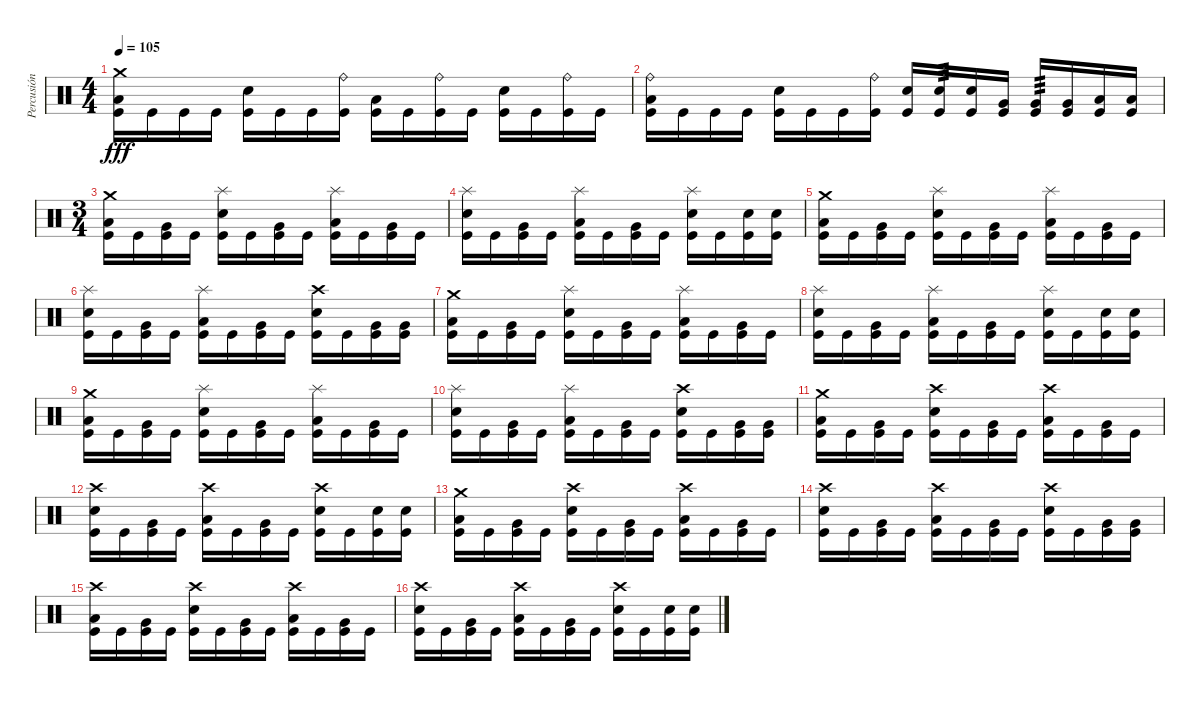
\track ("Percusión" "Percusión") {instrument percussion}
\staff {score}
\articulation defaults
\ts (4 4)
\tempo 105
\clef neutral
\ks c
("Crash medium (hit)" "Low Floor Tom (hit)" "Kick (hit)").16{dy fff} "Kick (hit)".16 "Kick (hit)".16 "Kick (hit)".16 ("Snare (hit) 2" "Kick (hit)").16 "Kick (hit)".16 "Kick (hit)".16 ("Ride (bell)" "Kick (hit)").16 ("Low Floor Tom (hit)" "Kick (hit)").16 "Kick (hit)".16 ("Ride (bell)" "Kick (hit)").16 "Kick (hit)".16 ("Snare (hit) 2" "Kick (hit)").16 "Kick (hit)".16 ("Ride (bell)" "Kick (hit)").16 "Kick (hit)".16 |
("Ride (bell)" "Low Floor Tom (hit)" "Kick (hit)").16 "Kick (hit)".16 "Kick (hit)".16 "Kick (hit)".16 ("Snare (hit) 2" "Kick (hit)").16 "Kick (hit)".16 "Kick (hit)".16 ("Ride (bell)" "Kick (hit)").16 ("Snare (hit) 2" "Kick (hit)").16 ("Snare (hit) 2" "Kick (hit)").16{tp 3} ("Snare (hit) 2" "Kick (hit)").16 ("Very Low Tom (hit)" "Kick (hit)").16 ("Very Low Tom (hit)" "Kick (hit)").16{tp 3} ("Very Low Tom (hit)" "Kick (hit)").16 ("Low Floor Tom (hit)" "Kick (hit)").16 ("Low Floor Tom (hit)" "Kick (hit)").16 |
\ts (3 4)
("Crash medium (hit)" "Low Floor Tom (hit)" "Kick (hit)").16 "Kick (hit)".16 ("Very Low Tom (hit)" "Kick (hit)").16 "Kick (hit)".16 ("Splash (hit)" "Snare (hit) 2" "Kick (hit)").16 "Kick (hit)".16 ("Very Low Tom (hit)" "Kick (hit)").16 "Kick (hit)".16 ("Splash (hit)" "Low Floor Tom (hit)" "Kick (hit)").16 "Kick (hit)".16 ("Very Low Tom (hit)" "Kick (hit)").16 "Kick (hit)".16 |
("Splash (hit)" "Snare (hit) 2" "Kick (hit)").16 "Kick (hit)".16 ("Very Low Tom (hit)" "Kick (hit)").16 "Kick (hit)".16 ("Splash (hit)" "Low Floor Tom (hit)" "Kick (hit)").16 "Kick (hit)".16 ("Very Low Tom (hit)" "Kick (hit)").16 "Kick (hit)".16 ("Splash (hit)" "Snare (hit) 2" "Kick (hit)").16 "Kick (hit)".16 ("Snare (hit) 2" "Kick (hit)").16 ("Snare (hit) 2" "Kick (hit)").16 |
("Crash medium (hit)" "Low Floor Tom (hit)" "Kick (hit)").16 "Kick (hit)".16 ("Very Low Tom (hit)" "Kick (hit)").16 "Kick (hit)".16 ("Splash (hit)" "Snare (hit) 2" "Kick (hit)").16 "Kick (hit)".16 ("Very Low Tom (hit)" "Kick (hit)").16 "Kick (hit)".16 ("Splash (hit)" "Low Floor Tom (hit)" "Kick (hit)").16 "Kick (hit)".16 ("Very Low Tom (hit)" "Kick (hit)").16 "Kick (hit)".16 |
("Splash (hit)" "Snare (hit) 2" "Kick (hit)").16 "Kick (hit)".16 ("Very Low Tom (hit)" "Kick (hit)").16 "Kick (hit)".16 ("Splash (hit)" "Low Floor Tom (hit)" "Kick (hit)").16 "Kick (hit)".16 ("Very Low Tom (hit)" "Kick (hit)").16 "Kick (hit)".16 ("Crash high (hit)" "Snare (hit) 2" "Kick (hit)").16 "Kick (hit)".16 ("Very Low Tom (hit)" "Kick (hit)").16 ("Very Low Tom (hit)" "Kick (hit)").16 |
("Crash medium (hit)" "Low Floor Tom (hit)" "Kick (hit)").16 "Kick (hit)".16 ("Very Low Tom (hit)" "Kick (hit)").16 "Kick (hit)".16 ("Splash (hit)" "Snare (hit) 2" "Kick (hit)").16 "Kick (hit)".16 ("Very Low Tom (hit)" "Kick (hit)").16 "Kick (hit)".16 ("Splash (hit)" "Low Floor Tom (hit)" "Kick (hit)").16 "Kick (hit)".16 ("Very Low Tom (hit)" "Kick (hit)").16 "Kick (hit)".16 |
("Splash (hit)" "Snare (hit) 2" "Kick (hit)").16 "Kick (hit)".16 ("Very Low Tom (hit)" "Kick (hit)").16 "Kick (hit)".16 ("Splash (hit)" "Low Floor Tom (hit)" "Kick (hit)").16 "Kick (hit)".16 ("Very Low Tom (hit)" "Kick (hit)").16 "Kick (hit)".16 ("Splash (hit)" "Snare (hit) 2" "Kick (hit)").16 "Kick (hit)".16 ("Snare (hit) 2" "Kick (hit)").16 ("Snare (hit) 2" "Kick (hit)").16 |
("Crash medium (hit)" "Low Floor Tom (hit)" "Kick (hit)").16 "Kick (hit)".16 ("Very Low Tom (hit)" "Kick (hit)").16 "Kick (hit)".16 ("Splash (hit)" "Snare (hit) 2" "Kick (hit)").16 "Kick (hit)".16 ("Very Low Tom (hit)" "Kick (hit)").16 "Kick (hit)".16 ("Splash (hit)" "Low Floor Tom (hit)" "Kick (hit)").16 "Kick (hit)".16 ("Very Low Tom (hit)" "Kick (hit)").16 "Kick (hit)".16 |
("Splash (hit)" "Snare (hit) 2" "Kick (hit)").16 "Kick (hit)".16 ("Very Low Tom (hit)" "Kick (hit)").16 "Kick (hit)".16 ("Splash (hit)" "Low Floor Tom (hit)" "Kick (hit)").16 "Kick (hit)".16 ("Very Low Tom (hit)" "Kick (hit)").16 "Kick (hit)".16 ("Crash high (hit)" "Snare (hit) 2" "Kick (hit)").16 "Kick (hit)".16 ("Very Low Tom (hit)" "Kick (hit)").16 ("Very Low Tom (hit)" "Kick (hit)").16 |
("Crash medium (hit)" "Low Floor Tom (hit)" "Kick (hit)").16 "Kick (hit)".16 ("Very Low Tom (hit)" "Kick (hit)").16 "Kick (hit)".16 ("Crash high (hit)" "Snare (hit) 2" "Kick (hit)").16 "Kick (hit)".16 ("Very Low Tom (hit)" "Kick (hit)").16 "Kick (hit)".16 ("Crash high (hit)" "Low Floor Tom (hit)" "Kick (hit)").16 "Kick (hit)".16 ("Very Low Tom (hit)" "Kick (hit)").16 "Kick (hit)".16 |
("Crash high (hit)" "Snare (hit) 2" "Kick (hit)").16 "Kick (hit)".16 ("Very Low Tom (hit)" "Kick (hit)").16 "Kick (hit)".16 ("Crash high (hit)" "Low Floor Tom (hit)" "Kick (hit)").16 "Kick (hit)".16 ("Very Low Tom (hit)" "Kick (hit)").16 "Kick (hit)".16 ("Crash high (hit)" "Snare (hit) 2" "Kick (hit)").16 "Kick (hit)".16 ("Snare (hit) 2" "Kick (hit)").16 ("Snare (hit) 2" "Kick (hit)").16 |
("Crash medium (hit)" "Low Floor Tom (hit)" "Kick (hit)").16 "Kick (hit)".16 ("Very Low Tom (hit)" "Kick (hit)").16 "Kick (hit)".16 ("Crash high (hit)" "Snare (hit) 2" "Kick (hit)").16 "Kick (hit)".16 ("Very Low Tom (hit)" "Kick (hit)").16 "Kick (hit)".16 ("Crash high (hit)" "Low Floor Tom (hit)" "Kick (hit)").16 "Kick (hit)".16 ("Very Low Tom (hit)" "Kick (hit)").16 "Kick (hit)".16 |
("Crash high (hit)" "Snare (hit) 2" "Kick (hit)").16 "Kick (hit)".16 ("Very Low Tom (hit)" "Kick (hit)").16 "Kick (hit)".16 ("Crash high (hit)" "Low Floor Tom (hit)" "Kick (hit)").16 "Kick (hit)".16 ("Very Low Tom (hit)" "Kick (hit)").16 "Kick (hit)".16 ("Crash high (hit)" "Snare (hit) 2" "Kick (hit)").16 "Kick (hit)".16 ("Very Low Tom (hit)" "Kick (hit)").16 ("Very Low Tom (hit)" "Kick (hit)").16 |
("Crash high (hit)" "Low Floor Tom (hit)" "Kick (hit)").16 "Kick (hit)".16 ("Very Low Tom (hit)" "Kick (hit)").16 "Kick (hit)".16 ("Crash high (hit)" "Snare (hit) 2" "Kick (hit)").16 "Kick (hit)".16 ("Very Low Tom (hit)" "Kick (hit)").16 "Kick (hit)".16 ("Crash high (hit)" "Low Floor Tom (hit)" "Kick (hit)").16 "Kick (hit)".16 ("Very Low Tom (hit)" "Kick (hit)").16 "Kick (hit)".16 |
("Crash high (hit)" "Snare (hit) 2" "Kick (hit)").16 "Kick (hit)".16 ("Very Low Tom (hit)" "Kick (hit)").16 "Kick (hit)".16 ("Crash high (hit)" "Low Floor Tom (hit)" "Kick (hit)").16 "Kick (hit)".16 ("Very Low Tom (hit)" "Kick (hit)").16 "Kick (hit)".16 ("Crash high (hit)" "Snare (hit) 2" "Kick (hit)").16 "Kick (hit)".16 ("Snare (hit) 2" "Kick (hit)").16 ("Snare (hit) 2" "Kick (hit)").16
